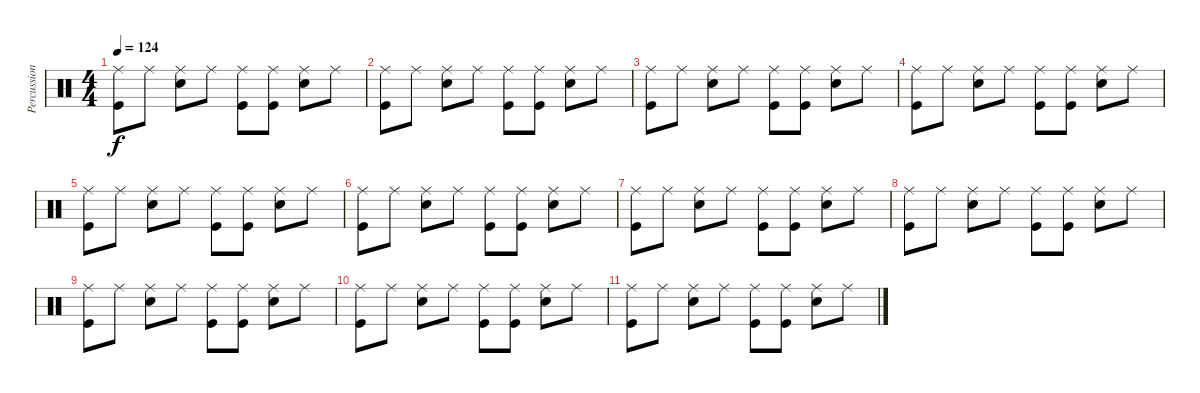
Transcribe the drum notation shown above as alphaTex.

\track ("Percussion" "Percussion") {solo instrument percussion}
\staff {score}
\articulation defaults
\ts (4 4)
\tempo 124
\clef neutral
\ks c
("Ride (middle)" "Kick (hit)").8{dy f} "Ride (middle)".8 ("Ride (middle)" "Electric Snare (hit)").8 "Ride (middle)".8 ("Ride (middle)" "Kick (hit)").8 ("Ride (middle)" "Kick (hit)").8 ("Ride (middle)" "Electric Snare (hit)").8 "Ride (middle)".8 |
("Ride (middle)" "Kick (hit)").8 "Ride (middle)".8 ("Ride (middle)" "Electric Snare (hit)").8 "Ride (middle)".8 ("Ride (middle)" "Kick (hit)").8 ("Ride (middle)" "Kick (hit)").8 ("Ride (middle)" "Electric Snare (hit)").8 "Ride (middle)".8 |
("Ride (middle)" "Kick (hit)").8 "Ride (middle)".8 ("Ride (middle)" "Electric Snare (hit)").8 "Ride (middle)".8 ("Ride (middle)" "Kick (hit)").8 ("Ride (middle)" "Kick (hit)").8 ("Ride (middle)" "Electric Snare (hit)").8 "Ride (middle)".8 |
("Ride (middle)" "Kick (hit)").8 "Ride (middle)".8 ("Ride (middle)" "Electric Snare (hit)").8 "Ride (middle)".8 ("Ride (middle)" "Kick (hit)").8 ("Ride (middle)" "Kick (hit)").8 ("Ride (middle)" "Electric Snare (hit)").8 "Ride (middle)".8 |
("Ride (middle)" "Kick (hit)").8 "Ride (middle)".8 ("Ride (middle)" "Electric Snare (hit)").8 "Ride (middle)".8 ("Ride (middle)" "Kick (hit)").8 ("Ride (middle)" "Kick (hit)").8 ("Ride (middle)" "Electric Snare (hit)").8 "Ride (middle)".8 |
("Ride (middle)" "Kick (hit)").8 "Ride (middle)".8 ("Ride (middle)" "Electric Snare (hit)").8 "Ride (middle)".8 ("Ride (middle)" "Kick (hit)").8 ("Ride (middle)" "Kick (hit)").8 ("Ride (middle)" "Electric Snare (hit)").8 "Ride (middle)".8 |
("Ride (middle)" "Kick (hit)").8 "Ride (middle)".8 ("Ride (middle)" "Electric Snare (hit)").8 "Ride (middle)".8 ("Ride (middle)" "Kick (hit)").8 ("Ride (middle)" "Kick (hit)").8 ("Ride (middle)" "Electric Snare (hit)").8 "Ride (middle)".8 |
("Ride (middle)" "Kick (hit)").8 "Ride (middle)".8 ("Ride (middle)" "Electric Snare (hit)").8 "Ride (middle)".8 ("Ride (middle)" "Kick (hit)").8 ("Ride (middle)" "Kick (hit)").8 ("Ride (middle)" "Electric Snare (hit)").8 "Ride (middle)".8 |
("Ride (middle)" "Kick (hit)").8 "Ride (middle)".8 ("Ride (middle)" "Electric Snare (hit)").8 "Ride (middle)".8 ("Ride (middle)" "Kick (hit)").8 ("Ride (middle)" "Kick (hit)").8 ("Ride (middle)" "Electric Snare (hit)").8 "Ride (middle)".8 |
("Ride (middle)" "Kick (hit)").8 "Ride (middle)".8 ("Ride (middle)" "Electric Snare (hit)").8 "Ride (middle)".8 ("Ride (middle)" "Kick (hit)").8 ("Ride (middle)" "Kick (hit)").8 ("Ride (middle)" "Electric Snare (hit)").8 "Ride (middle)".8 |
("Ride (middle)" "Kick (hit)").8 "Ride (middle)".8 ("Ride (middle)" "Electric Snare (hit)").8 "Ride (middle)".8 ("Ride (middle)" "Kick (hit)").8 ("Ride (middle)" "Kick (hit)").8 ("Ride (middle)" "Electric Snare (hit)").8 "Ride (middle)".8
